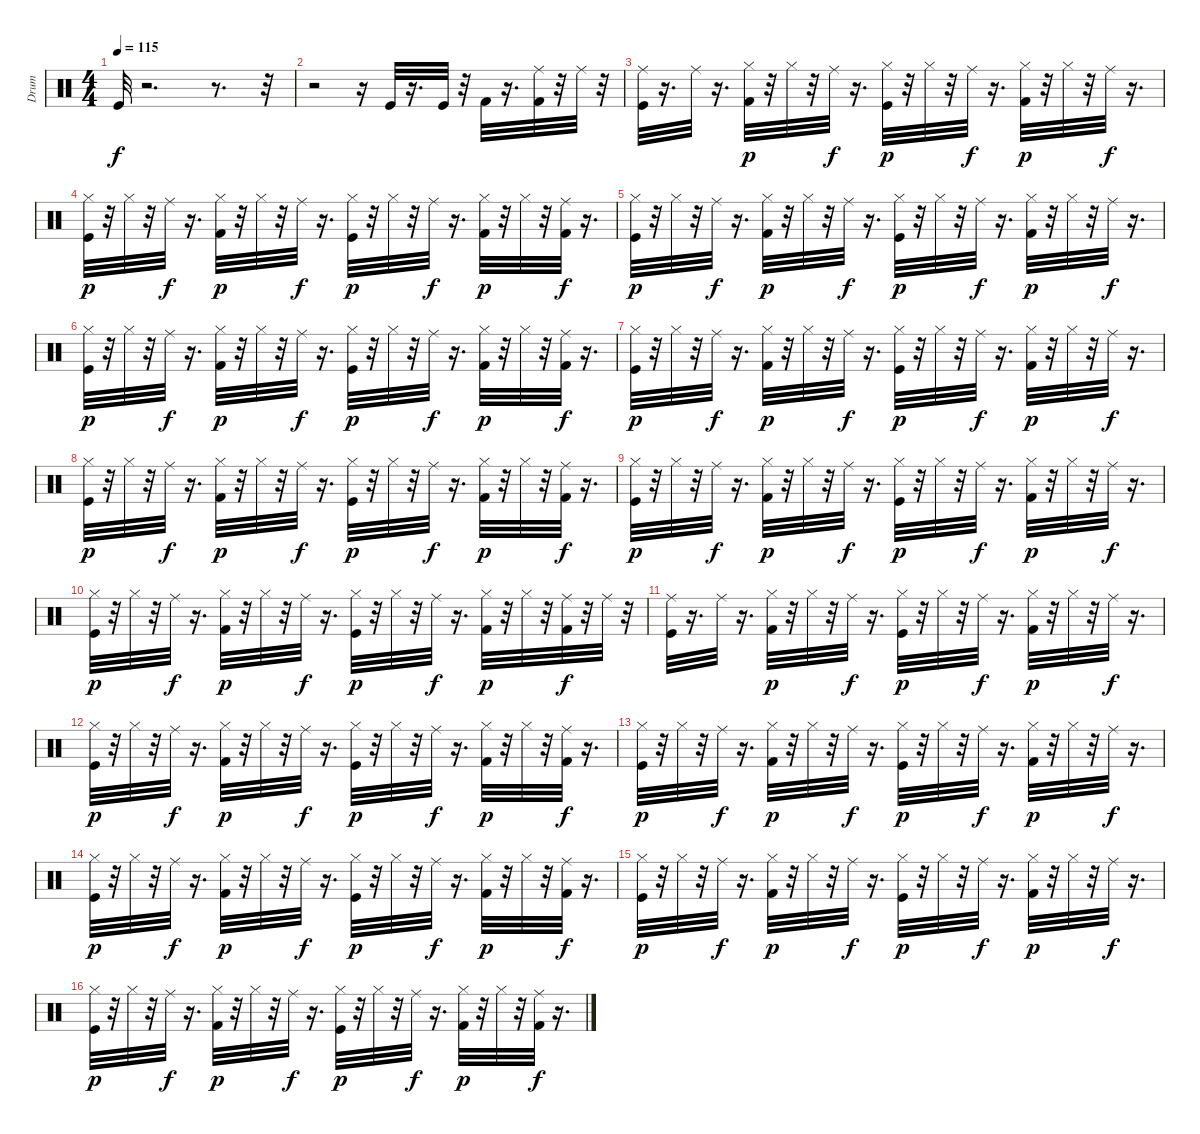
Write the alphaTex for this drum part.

\track ("Drum" "Drum") {instrument percussion}
\staff {score}
\articulation defaults
\ts (4 4)
\tempo 115
\clef neutral
\ks c "Kick (hit)".32{dy f}
r.2{d} r.8{d} r.32 |
r.2 r.16 "Kick (hit)".32 r.16{d} "Kick (hit)".32 r.32 "Kick (hit) 2".32 r.16{d} ("Ride (middle)" "Kick (hit) 2").32 r.32 "Ride (middle)".32 r.32 |
("Ride (middle)" "Kick (hit)").32 r.16{d} "Ride (middle)".32 r.16{d} ("Hi-Hat (closed)" "Kick (hit) 2").32{dy p} r.32 "Hi-Hat (closed)".32 r.32 "Ride (middle)".32{dy f} r.16{d} ("Hi-Hat (closed)" "Kick (hit)").32{dy p} r.32 "Hi-Hat (closed)".32 r.32 "Ride (middle)".32{dy f} r.16{d} ("Hi-Hat (closed)" "Kick (hit) 2").32{dy p} r.32 "Hi-Hat (closed)".32 r.32 "Ride (middle)".32{dy f} r.16{d} |
("Hi-Hat (closed)" "Kick (hit)").32{dy p} r.32 "Hi-Hat (closed)".32 r.32 "Ride (middle)".32{dy f} r.16{d} ("Hi-Hat (closed)" "Kick (hit) 2").32{dy p} r.32 "Hi-Hat (closed)".32 r.32 "Ride (middle)".32{dy f} r.16{d} ("Hi-Hat (closed)" "Kick (hit)").32{dy p} r.32 "Hi-Hat (closed)".32 r.32 "Ride (middle)".32{dy f} r.16{d} ("Kick (hit) 2" "Hi-Hat (closed)").32{dy p} r.32 "Hi-Hat (closed)".32 r.32 ("Kick (hit) 2" "Ride (middle)").32{dy f} r.16{d} |
("Hi-Hat (closed)" "Kick (hit)").32{dy p} r.32 "Hi-Hat (closed)".32 r.32 "Ride (middle)".32{dy f} r.16{d} ("Hi-Hat (closed)" "Kick (hit) 2").32{dy p} r.32 "Hi-Hat (closed)".32 r.32 "Ride (middle)".32{dy f} r.16{d} ("Hi-Hat (closed)" "Kick (hit)").32{dy p} r.32 "Hi-Hat (closed)".32 r.32 "Ride (middle)".32{dy f} r.16{d} ("Hi-Hat (closed)" "Kick (hit) 2").32{dy p} r.32 "Hi-Hat (closed)".32 r.32 "Ride (middle)".32{dy f} r.16{d} |
("Hi-Hat (closed)" "Kick (hit)").32{dy p} r.32 "Hi-Hat (closed)".32 r.32 "Ride (middle)".32{dy f} r.16{d} ("Hi-Hat (closed)" "Kick (hit) 2").32{dy p} r.32 "Hi-Hat (closed)".32 r.32 "Ride (middle)".32{dy f} r.16{d} ("Hi-Hat (closed)" "Kick (hit)").32{dy p} r.32 "Hi-Hat (closed)".32 r.32 "Ride (middle)".32{dy f} r.16{d} ("Kick (hit) 2" "Hi-Hat (closed)").32{dy p} r.32 "Hi-Hat (closed)".32 r.32 ("Kick (hit) 2" "Ride (middle)").32{dy f} r.16{d} |
("Hi-Hat (closed)" "Kick (hit)").32{dy p} r.32 "Hi-Hat (closed)".32 r.32 "Ride (middle)".32{dy f} r.16{d} ("Hi-Hat (closed)" "Kick (hit) 2").32{dy p} r.32 "Hi-Hat (closed)".32 r.32 "Ride (middle)".32{dy f} r.16{d} ("Hi-Hat (closed)" "Kick (hit)").32{dy p} r.32 "Hi-Hat (closed)".32 r.32 "Ride (middle)".32{dy f} r.16{d} ("Hi-Hat (closed)" "Kick (hit) 2").32{dy p} r.32 "Hi-Hat (closed)".32 r.32 "Ride (middle)".32{dy f} r.16{d} |
("Hi-Hat (closed)" "Kick (hit)").32{dy p} r.32 "Hi-Hat (closed)".32 r.32 "Ride (middle)".32{dy f} r.16{d} ("Hi-Hat (closed)" "Kick (hit) 2").32{dy p} r.32 "Hi-Hat (closed)".32 r.32 "Ride (middle)".32{dy f} r.16{d} ("Hi-Hat (closed)" "Kick (hit)").32{dy p} r.32 "Hi-Hat (closed)".32 r.32 "Ride (middle)".32{dy f} r.16{d} ("Kick (hit) 2" "Hi-Hat (closed)").32{dy p} r.32 "Hi-Hat (closed)".32 r.32 ("Kick (hit) 2" "Ride (middle)").32{dy f} r.16{d} |
("Hi-Hat (closed)" "Kick (hit)").32{dy p} r.32 "Hi-Hat (closed)".32 r.32 "Ride (middle)".32{dy f} r.16{d} ("Hi-Hat (closed)" "Kick (hit) 2").32{dy p} r.32 "Hi-Hat (closed)".32 r.32 "Ride (middle)".32{dy f} r.16{d} ("Hi-Hat (closed)" "Kick (hit)").32{dy p} r.32 "Hi-Hat (closed)".32 r.32 "Ride (middle)".32{dy f} r.16{d} ("Hi-Hat (closed)" "Kick (hit) 2").32{dy p} r.32 "Hi-Hat (closed)".32 r.32 "Ride (middle)".32{dy f} r.16{d} |
("Hi-Hat (closed)" "Kick (hit)").32{dy p} r.32 "Hi-Hat (closed)".32 r.32 "Ride (middle)".32{dy f} r.16{d} ("Hi-Hat (closed)" "Kick (hit) 2").32{dy p} r.32 "Hi-Hat (closed)".32 r.32 "Ride (middle)".32{dy f} r.16{d} ("Hi-Hat (closed)" "Kick (hit)").32{dy p} r.32 "Hi-Hat (closed)".32 r.32 "Ride (middle)".32{dy f} r.16{d} ("Kick (hit) 2" "Hi-Hat (closed)").32{dy p} r.32 "Hi-Hat (closed)".32 r.32 ("Ride (middle)" "Kick (hit) 2").32{dy f} r.32 "Ride (middle)".32 r.32 |
("Ride (middle)" "Kick (hit)").32 r.16{d} "Ride (middle)".32 r.16{d} ("Hi-Hat (closed)" "Kick (hit) 2").32{dy p} r.32 "Hi-Hat (closed)".32 r.32 "Ride (middle)".32{dy f} r.16{d} ("Hi-Hat (closed)" "Kick (hit)").32{dy p} r.32 "Hi-Hat (closed)".32 r.32 "Ride (middle)".32{dy f} r.16{d} ("Hi-Hat (closed)" "Kick (hit) 2").32{dy p} r.32 "Hi-Hat (closed)".32 r.32 "Ride (middle)".32{dy f} r.16{d} |
("Hi-Hat (closed)" "Kick (hit)").32{dy p} r.32 "Hi-Hat (closed)".32 r.32 "Ride (middle)".32{dy f} r.16{d} ("Hi-Hat (closed)" "Kick (hit) 2").32{dy p} r.32 "Hi-Hat (closed)".32 r.32 "Ride (middle)".32{dy f} r.16{d} ("Hi-Hat (closed)" "Kick (hit)").32{dy p} r.32 "Hi-Hat (closed)".32 r.32 "Ride (middle)".32{dy f} r.16{d} ("Kick (hit) 2" "Hi-Hat (closed)").32{dy p} r.32 "Hi-Hat (closed)".32 r.32 ("Kick (hit) 2" "Ride (middle)").32{dy f} r.16{d} |
("Hi-Hat (closed)" "Kick (hit)").32{dy p} r.32 "Hi-Hat (closed)".32 r.32 "Ride (middle)".32{dy f} r.16{d} ("Hi-Hat (closed)" "Kick (hit) 2").32{dy p} r.32 "Hi-Hat (closed)".32 r.32 "Ride (middle)".32{dy f} r.16{d} ("Hi-Hat (closed)" "Kick (hit)").32{dy p} r.32 "Hi-Hat (closed)".32 r.32 "Ride (middle)".32{dy f} r.16{d} ("Hi-Hat (closed)" "Kick (hit) 2").32{dy p} r.32 "Hi-Hat (closed)".32 r.32 "Ride (middle)".32{dy f} r.16{d} |
("Hi-Hat (closed)" "Kick (hit)").32{dy p} r.32 "Hi-Hat (closed)".32 r.32 "Ride (middle)".32{dy f} r.16{d} ("Hi-Hat (closed)" "Kick (hit) 2").32{dy p} r.32 "Hi-Hat (closed)".32 r.32 "Ride (middle)".32{dy f} r.16{d} ("Hi-Hat (closed)" "Kick (hit)").32{dy p} r.32 "Hi-Hat (closed)".32 r.32 "Ride (middle)".32{dy f} r.16{d} ("Kick (hit) 2" "Hi-Hat (closed)").32{dy p} r.32 "Hi-Hat (closed)".32 r.32 ("Kick (hit) 2" "Ride (middle)").32{dy f} r.16{d} |
("Hi-Hat (closed)" "Kick (hit)").32{dy p} r.32 "Hi-Hat (closed)".32 r.32 "Ride (middle)".32{dy f} r.16{d} ("Hi-Hat (closed)" "Kick (hit) 2").32{dy p} r.32 "Hi-Hat (closed)".32 r.32 "Ride (middle)".32{dy f} r.16{d} ("Hi-Hat (closed)" "Kick (hit)").32{dy p} r.32 "Hi-Hat (closed)".32 r.32 "Ride (middle)".32{dy f} r.16{d} ("Hi-Hat (closed)" "Kick (hit) 2").32{dy p} r.32 "Hi-Hat (closed)".32 r.32 "Ride (middle)".32{dy f} r.16{d} |
("Hi-Hat (closed)" "Kick (hit)").32{dy p} r.32 "Hi-Hat (closed)".32 r.32 "Ride (middle)".32{dy f} r.16{d} ("Hi-Hat (closed)" "Kick (hit) 2").32{dy p} r.32 "Hi-Hat (closed)".32 r.32 "Ride (middle)".32{dy f} r.16{d} ("Hi-Hat (closed)" "Kick (hit)").32{dy p} r.32 "Hi-Hat (closed)".32 r.32 "Ride (middle)".32{dy f} r.16{d} ("Kick (hit) 2" "Hi-Hat (closed)").32{dy p} r.32 "Hi-Hat (closed)".32 r.32 ("Kick (hit) 2" "Ride (middle)").32{dy f} r.16{d}
